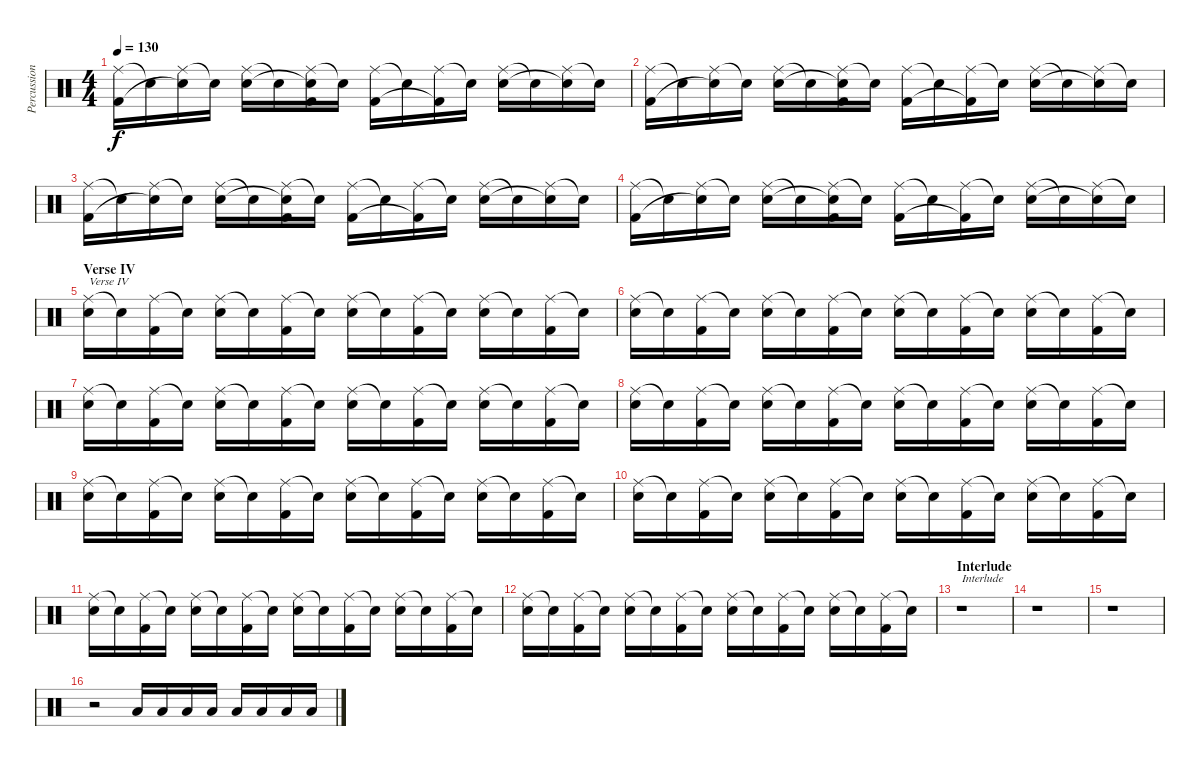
\track ("Percussion" "Percussion") {instrument percussion}
\staff {score}
\articulation defaults
\ts (4 4)
\tempo 130
\clef neutral
\ks c
("Ride (middle)" "Kick (hit) 2").16{dy f} "Snare (hit)"{t}.16 ("Ride (middle)" "Snare (hit)"{t}).16 "Snare (hit)"{t}.16 ("Ride (middle)" "Electric Snare (hit)").16 "Snare (hit)"{t}.16 ("Ride (middle)" "Snare (hit)"{t} "Kick (hit) 2").16 "Snare (hit)"{t}.16 ("Ride (middle)" "Kick (hit) 2").16 "Snare (hit)"{t}.16 ("Ride (middle)" "Kick (hit) 2"{t}).16 "Snare (hit)"{t}.16 ("Ride (middle)" "Electric Snare (hit)").16 "Snare (hit)"{t}.16 ("Ride (middle)" "Snare (hit)"{t}).16 "Snare (hit)"{t}.16 |
("Ride (middle)" "Kick (hit) 2").16 "Snare (hit)"{t}.16 ("Ride (middle)" "Snare (hit)"{t}).16 "Snare (hit)"{t}.16 ("Ride (middle)" "Electric Snare (hit)").16 "Snare (hit)"{t}.16 ("Ride (middle)" "Snare (hit)"{t} "Kick (hit) 2").16 "Snare (hit)"{t}.16 ("Ride (middle)" "Kick (hit) 2").16 "Snare (hit)"{t}.16 ("Ride (middle)" "Kick (hit) 2"{t}).16 "Snare (hit)"{t}.16 ("Ride (middle)" "Electric Snare (hit)").16 "Snare (hit)"{t}.16 ("Ride (middle)" "Snare (hit)"{t}).16 "Snare (hit)"{t}.16 |
("Ride (middle)" "Kick (hit) 2").16 "Snare (hit)"{t}.16 ("Ride (middle)" "Snare (hit)"{t}).16 "Snare (hit)"{t}.16 ("Ride (middle)" "Electric Snare (hit)").16 "Snare (hit)"{t}.16 ("Ride (middle)" "Snare (hit)"{t} "Kick (hit) 2").16 "Snare (hit)"{t}.16 ("Ride (middle)" "Kick (hit) 2").16 "Snare (hit)"{t}.16 ("Ride (middle)" "Kick (hit) 2"{t}).16 "Snare (hit)"{t}.16 ("Ride (middle)" "Electric Snare (hit)").16 "Snare (hit)"{t}.16 ("Ride (middle)" "Snare (hit)"{t}).16 "Snare (hit)"{t}.16 |
("Ride (middle)" "Kick (hit) 2").16 "Snare (hit)"{t}.16 ("Ride (middle)" "Snare (hit)"{t}).16 "Snare (hit)"{t}.16 ("Ride (middle)" "Electric Snare (hit)").16 "Snare (hit)"{t}.16 ("Ride (middle)" "Snare (hit)"{t} "Kick (hit) 2").16 "Snare (hit)"{t}.16 ("Ride (middle)" "Kick (hit) 2").16 "Snare (hit)"{t}.16 ("Ride (middle)" "Kick (hit) 2"{t}).16 "Snare (hit)"{t}.16 ("Ride (middle)" "Electric Snare (hit)").16 "Snare (hit)"{t}.16 ("Ride (middle)" "Snare (hit)"{t}).16 "Snare (hit)"{t}.16 |
\section ("" "Verse IV")
("Ride (middle)" "Electric Snare (hit)").16{txt "Verse IV"} "Snare (hit)"{t}.16 ("Ride (middle)" "Kick (hit) 2").16 "Snare (hit)"{t}.16 ("Ride (middle)" "Electric Snare (hit)").16 "Snare (hit)"{t}.16 ("Ride (middle)" "Kick (hit) 2").16 "Snare (hit)"{t}.16 ("Ride (middle)" "Electric Snare (hit)").16 "Snare (hit)"{t}.16 ("Ride (middle)" "Kick (hit) 2").16 "Snare (hit)"{t}.16 ("Ride (middle)" "Electric Snare (hit)").16 "Snare (hit)"{t}.16 ("Ride (middle)" "Kick (hit) 2").16 "Snare (hit)"{t}.16 |
("Ride (middle)" "Electric Snare (hit)").16 "Snare (hit)"{t}.16 ("Ride (middle)" "Kick (hit) 2").16 "Snare (hit)"{t}.16 ("Ride (middle)" "Electric Snare (hit)").16 "Snare (hit)"{t}.16 ("Ride (middle)" "Kick (hit) 2").16 "Snare (hit)"{t}.16 ("Ride (middle)" "Electric Snare (hit)").16 "Snare (hit)"{t}.16 ("Ride (middle)" "Kick (hit) 2").16 "Snare (hit)"{t}.16 ("Ride (middle)" "Electric Snare (hit)").16 "Snare (hit)"{t}.16 ("Ride (middle)" "Kick (hit) 2").16 "Snare (hit)"{t}.16 |
("Ride (middle)" "Electric Snare (hit)").16 "Snare (hit)"{t}.16 ("Ride (middle)" "Kick (hit) 2").16 "Snare (hit)"{t}.16 ("Ride (middle)" "Electric Snare (hit)").16 "Snare (hit)"{t}.16 ("Ride (middle)" "Kick (hit) 2").16 "Snare (hit)"{t}.16 ("Ride (middle)" "Electric Snare (hit)").16 "Snare (hit)"{t}.16 ("Ride (middle)" "Kick (hit) 2").16 "Snare (hit)"{t}.16 ("Ride (middle)" "Electric Snare (hit)").16 "Snare (hit)"{t}.16 ("Ride (middle)" "Kick (hit) 2").16 "Snare (hit)"{t}.16 |
("Ride (middle)" "Electric Snare (hit)").16 "Snare (hit)"{t}.16 ("Ride (middle)" "Kick (hit) 2").16 "Snare (hit)"{t}.16 ("Ride (middle)" "Electric Snare (hit)").16 "Snare (hit)"{t}.16 ("Ride (middle)" "Kick (hit) 2").16 "Snare (hit)"{t}.16 ("Ride (middle)" "Electric Snare (hit)").16 "Snare (hit)"{t}.16 ("Ride (middle)" "Kick (hit) 2").16 "Snare (hit)"{t}.16 ("Ride (middle)" "Electric Snare (hit)").16 "Snare (hit)"{t}.16 ("Ride (middle)" "Kick (hit) 2").16 "Snare (hit)"{t}.16 |
("Ride (middle)" "Electric Snare (hit)").16 "Snare (hit)"{t}.16 ("Ride (middle)" "Kick (hit) 2").16 "Snare (hit)"{t}.16 ("Ride (middle)" "Electric Snare (hit)").16 "Snare (hit)"{t}.16 ("Ride (middle)" "Kick (hit) 2").16 "Snare (hit)"{t}.16 ("Ride (middle)" "Electric Snare (hit)").16 "Snare (hit)"{t}.16 ("Ride (middle)" "Kick (hit) 2").16 "Snare (hit)"{t}.16 ("Ride (middle)" "Electric Snare (hit)").16 "Snare (hit)"{t}.16 ("Ride (middle)" "Kick (hit) 2").16 "Snare (hit)"{t}.16 |
("Ride (middle)" "Electric Snare (hit)").16 "Snare (hit)"{t}.16 ("Ride (middle)" "Kick (hit) 2").16 "Snare (hit)"{t}.16 ("Ride (middle)" "Electric Snare (hit)").16 "Snare (hit)"{t}.16 ("Ride (middle)" "Kick (hit) 2").16 "Snare (hit)"{t}.16 ("Ride (middle)" "Electric Snare (hit)").16 "Snare (hit)"{t}.16 ("Ride (middle)" "Kick (hit) 2").16 "Snare (hit)"{t}.16 ("Ride (middle)" "Electric Snare (hit)").16 "Snare (hit)"{t}.16 ("Ride (middle)" "Kick (hit) 2").16 "Snare (hit)"{t}.16 |
("Ride (middle)" "Electric Snare (hit)").16 "Snare (hit)"{t}.16 ("Ride (middle)" "Kick (hit) 2").16 "Snare (hit)"{t}.16 ("Ride (middle)" "Electric Snare (hit)").16 "Snare (hit)"{t}.16 ("Ride (middle)" "Kick (hit) 2").16 "Snare (hit)"{t}.16 ("Ride (middle)" "Electric Snare (hit)").16 "Snare (hit)"{t}.16 ("Ride (middle)" "Kick (hit) 2").16 "Snare (hit)"{t}.16 ("Ride (middle)" "Electric Snare (hit)").16 "Snare (hit)"{t}.16 ("Ride (middle)" "Kick (hit) 2").16 "Snare (hit)"{t}.16 |
("Ride (middle)" "Electric Snare (hit)").16 "Snare (hit)"{t}.16 ("Ride (middle)" "Kick (hit) 2").16 "Snare (hit)"{t}.16 ("Ride (middle)" "Electric Snare (hit)").16 "Snare (hit)"{t}.16 ("Ride (middle)" "Kick (hit) 2").16 "Snare (hit)"{t}.16 ("Ride (middle)" "Electric Snare (hit)").16 "Snare (hit)"{t}.16 ("Ride (middle)" "Kick (hit) 2").16 "Snare (hit)"{t}.16 ("Ride (middle)" "Electric Snare (hit)").16 "Snare (hit)"{t}.16 ("Ride (middle)" "Kick (hit) 2").16 "Snare (hit)"{t}.16 |
\section ("" "Interlude")
r.1{txt "Interlude"} |
r.1 |
r.1 |
r.2 "Low Tom (hit)".16 "Low Tom (hit)".16 "Low Tom (hit)".16 "Low Tom (hit)".16 "Low Tom (hit)".16 "Low Tom (hit)".16 "Low Tom (hit)".16 "Low Tom (hit)".16
